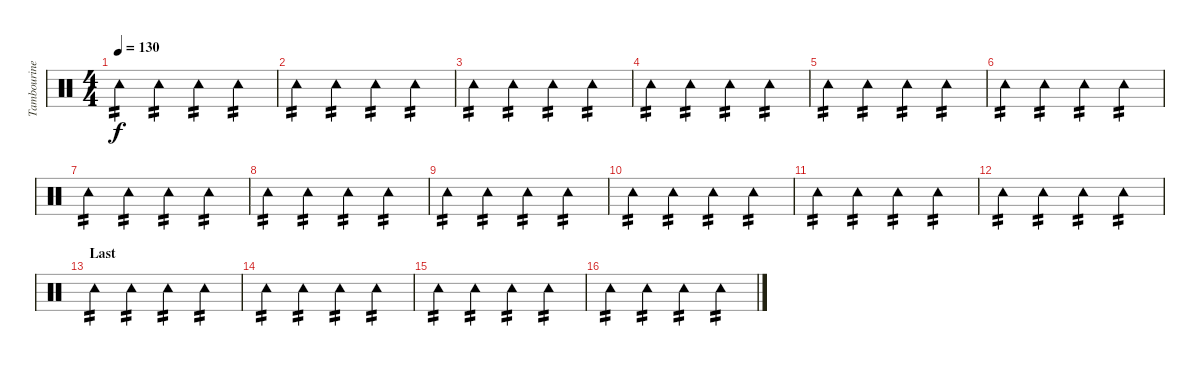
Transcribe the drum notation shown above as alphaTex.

\track ("Tambourine" "Tambourine") {instrument percussion}
\staff {score}
\articulation defaults
\ts (4 4)
\tempo 130
\clef neutral
\ks c "Tambourine (hit)".4{tp 2 dy f} "Tambourine (hit)".4{tp 2} "Tambourine (hit)".4{tp 2} "Tambourine (hit)".4{tp 2}
|
"Tambourine (hit)".4{tp 2} "Tambourine (hit)".4{tp 2} "Tambourine (hit)".4{tp 2} "Tambourine (hit)".4{tp 2} |
"Tambourine (hit)".4{tp 2} "Tambourine (hit)".4{tp 2} "Tambourine (hit)".4{tp 2} "Tambourine (hit)".4{tp 2} |
"Tambourine (hit)".4{tp 2} "Tambourine (hit)".4{tp 2} "Tambourine (hit)".4{tp 2} "Tambourine (hit)".4{tp 2} |
"Tambourine (hit)".4{tp 2} "Tambourine (hit)".4{tp 2} "Tambourine (hit)".4{tp 2} "Tambourine (hit)".4{tp 2} |
"Tambourine (hit)".4{tp 2} "Tambourine (hit)".4{tp 2} "Tambourine (hit)".4{tp 2} "Tambourine (hit)".4{tp 2} |
"Tambourine (hit)".4{tp 2} "Tambourine (hit)".4{tp 2} "Tambourine (hit)".4{tp 2} "Tambourine (hit)".4{tp 2} |
"Tambourine (hit)".4{tp 2} "Tambourine (hit)".4{tp 2} "Tambourine (hit)".4{tp 2} "Tambourine (hit)".4{tp 2} |
"Tambourine (hit)".4{tp 2} "Tambourine (hit)".4{tp 2} "Tambourine (hit)".4{tp 2} "Tambourine (hit)".4{tp 2} |
"Tambourine (hit)".4{tp 2} "Tambourine (hit)".4{tp 2} "Tambourine (hit)".4{tp 2} "Tambourine (hit)".4{tp 2} |
"Tambourine (hit)".4{tp 2} "Tambourine (hit)".4{tp 2} "Tambourine (hit)".4{tp 2} "Tambourine (hit)".4{tp 2} |
"Tambourine (hit)".4{tp 2} "Tambourine (hit)".4{tp 2} "Tambourine (hit)".4{tp 2} "Tambourine (hit)".4{tp 2} |
\section ("" "Last")
"Tambourine (hit)".4{tp 2} "Tambourine (hit)".4{tp 2} "Tambourine (hit)".4{tp 2} "Tambourine (hit)".4{tp 2} |
"Tambourine (hit)".4{tp 2} "Tambourine (hit)".4{tp 2} "Tambourine (hit)".4{tp 2} "Tambourine (hit)".4{tp 2} |
"Tambourine (hit)".4{tp 2} "Tambourine (hit)".4{tp 2} "Tambourine (hit)".4{tp 2} "Tambourine (hit)".4{tp 2} |
"Tambourine (hit)".4{tp 2} "Tambourine (hit)".4{tp 2} "Tambourine (hit)".4{tp 2} "Tambourine (hit)".4{tp 2}
